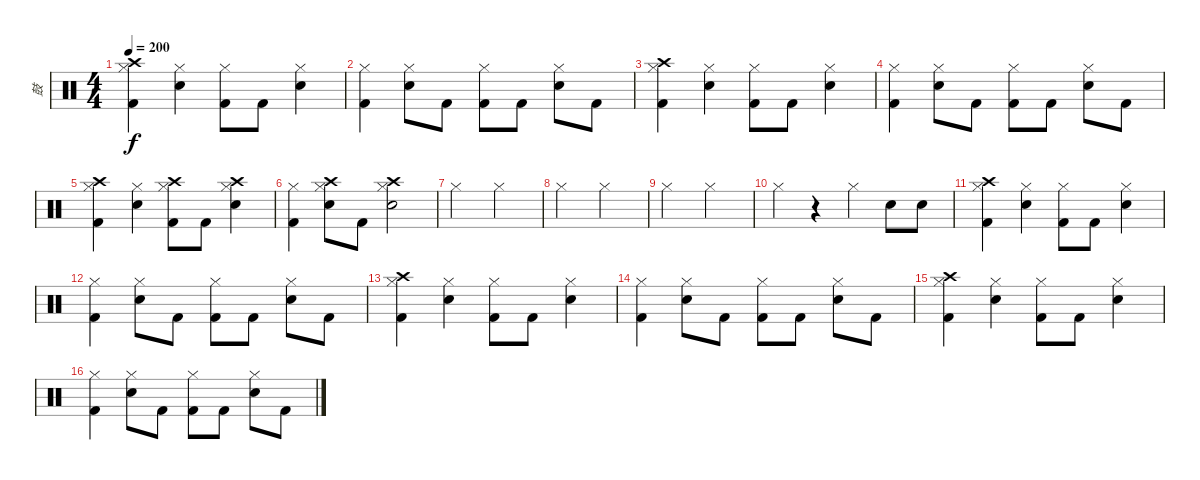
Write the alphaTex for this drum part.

\track ("鼓" "鼓") {instrument percussion}
\staff {score}
\articulation defaults
\ts (4 4)
\tempo 200
\clef neutral
\ks c
("Hi-Hat (closed)" "Crash high (hit)" "Kick (hit) 2").4{dy f} ("Hi-Hat (closed)" "Snare (hit) 2").4 ("Hi-Hat (closed)" "Kick (hit) 2").8 "Kick (hit) 2".8 ("Hi-Hat (closed)" "Snare (hit) 2").4 |
("Hi-Hat (closed)" "Kick (hit) 2").4 ("Hi-Hat (closed)" "Snare (hit) 2").8 "Kick (hit) 2".8 ("Hi-Hat (closed)" "Kick (hit) 2").8 "Kick (hit) 2".8 ("Hi-Hat (closed)" "Snare (hit) 2").8 "Kick (hit) 2".8 |
("Hi-Hat (closed)" "Crash high (hit)" "Kick (hit) 2").4 ("Hi-Hat (closed)" "Snare (hit) 2").4 ("Hi-Hat (closed)" "Kick (hit) 2").8 "Kick (hit) 2".8 ("Hi-Hat (closed)" "Snare (hit) 2").4 |
("Hi-Hat (closed)" "Kick (hit) 2").4 ("Hi-Hat (closed)" "Snare (hit) 2").8 "Kick (hit) 2".8 ("Hi-Hat (closed)" "Kick (hit) 2").8 "Kick (hit) 2".8 ("Hi-Hat (closed)" "Snare (hit) 2").8 "Kick (hit) 2".8 |
("Hi-Hat (closed)" "Crash high (hit)" "Kick (hit) 2").4 ("Hi-Hat (closed)" "Snare (hit) 2").4 ("Hi-Hat (closed)" "Crash high (hit)" "Kick (hit) 2").8 "Kick (hit) 2".8 ("Hi-Hat (closed)" "Crash high (hit)" "Snare (hit) 2").4 |
("Hi-Hat (closed)" "Kick (hit) 2").4 ("Hi-Hat (closed)" "Crash high (hit)" "Snare (hit) 2").8 "Kick (hit) 2".8 ("Hi-Hat (closed)" "Crash high (hit)" "Snare (hit) 2").2 |
"Hi-Hat (closed)".2 "Hi-Hat (closed)".2 |
"Hi-Hat (closed)".2 "Hi-Hat (closed)".2 |
"Hi-Hat (closed)".2 "Hi-Hat (closed)".2 |
"Hi-Hat (closed)".4 r.4 "Hi-Hat (closed)".4 "Snare (hit) 2".8 "Snare (hit) 2".8 |
("Hi-Hat (closed)" "Crash high (hit)" "Kick (hit) 2").4 ("Hi-Hat (closed)" "Snare (hit) 2").4 ("Hi-Hat (closed)" "Kick (hit) 2").8 "Kick (hit) 2".8 ("Hi-Hat (closed)" "Snare (hit) 2").4 |
("Hi-Hat (closed)" "Kick (hit) 2").4 ("Hi-Hat (closed)" "Snare (hit) 2").8 "Kick (hit) 2".8 ("Hi-Hat (closed)" "Kick (hit) 2").8 "Kick (hit) 2".8 ("Hi-Hat (closed)" "Snare (hit) 2").8 "Kick (hit) 2".8 |
("Hi-Hat (closed)" "Crash high (hit)" "Kick (hit) 2").4 ("Hi-Hat (closed)" "Snare (hit) 2").4 ("Hi-Hat (closed)" "Kick (hit) 2").8 "Kick (hit) 2".8 ("Hi-Hat (closed)" "Snare (hit) 2").4 |
("Hi-Hat (closed)" "Kick (hit) 2").4 ("Hi-Hat (closed)" "Snare (hit) 2").8 "Kick (hit) 2".8 ("Hi-Hat (closed)" "Kick (hit) 2").8 "Kick (hit) 2".8 ("Hi-Hat (closed)" "Snare (hit) 2").8 "Kick (hit) 2".8 |
("Hi-Hat (closed)" "Crash high (hit)" "Kick (hit) 2").4 ("Hi-Hat (closed)" "Snare (hit) 2").4 ("Hi-Hat (closed)" "Kick (hit) 2").8 "Kick (hit) 2".8 ("Hi-Hat (closed)" "Snare (hit) 2").4 |
("Hi-Hat (closed)" "Kick (hit) 2").4 ("Hi-Hat (closed)" "Snare (hit) 2").8 "Kick (hit) 2".8 ("Hi-Hat (closed)" "Kick (hit) 2").8 "Kick (hit) 2".8 ("Hi-Hat (closed)" "Snare (hit) 2").8 "Kick (hit) 2".8
